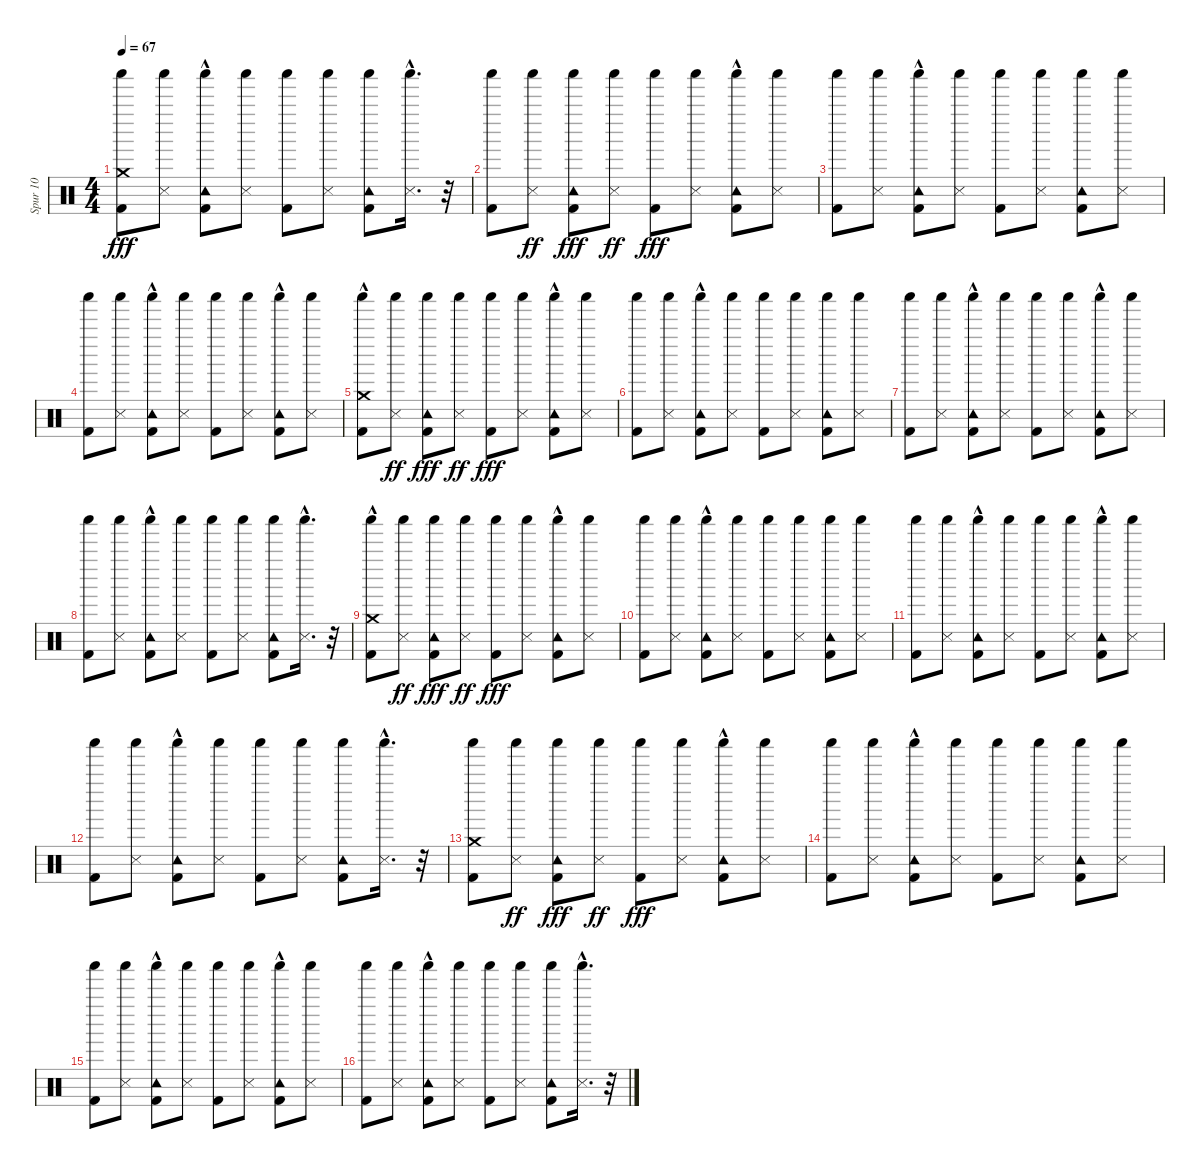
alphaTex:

\track ("Spur 10" "Spur 10") {instrument percussion}
\staff {score}
\articulation defaults
\ts (4 4)
\tempo 67
\clef neutral
\ks c
("Kick (hit) 2" "Crash medium (hit)" "Shaker (hit)").8{dy fff} ("Snare (side stick) 3" "Shaker (hit)").8 ("Kick (hit) 2" "Tambourine (hit)"{hac} "Shaker (hit)").8 ("Snare (side stick) 3" "Shaker (hit)").8 ("Kick (hit) 2" "Shaker (hit)").8 ("Snare (side stick) 3" "Shaker (hit)").8 ("Kick (hit) 2" "Tambourine (hit)" "Shaker (hit)").8 ("Snare (side stick) 3"{hac} "Shaker (hit)").16{d} r.32 |
("Kick (hit) 2" "Shaker (hit)").8 ("Snare (side stick) 3" "Shaker (hit)").8{dy ff} ("Kick (hit) 2" "Tambourine (hit)" "Shaker (hit)").8{dy fff} ("Snare (side stick) 3" "Shaker (hit)").8{dy ff} ("Kick (hit) 2" "Shaker (hit)").8{dy fff} ("Snare (side stick) 3" "Shaker (hit)").8 ("Kick (hit) 2" "Tambourine (hit)"{hac} "Shaker (hit)").8 ("Snare (side stick) 3" "Shaker (hit)").8 |
("Kick (hit) 2" "Shaker (hit)").8 ("Snare (side stick) 3" "Shaker (hit)").8 ("Kick (hit) 2" "Tambourine (hit)"{hac} "Shaker (hit)").8 ("Snare (side stick) 3" "Shaker (hit)").8 ("Kick (hit) 2" "Shaker (hit)").8 ("Snare (side stick) 3" "Shaker (hit)").8 ("Kick (hit) 2" "Tambourine (hit)" "Shaker (hit)").8 ("Snare (side stick) 3" "Shaker (hit)").8 |
("Kick (hit) 2" "Shaker (hit)").8 ("Snare (side stick) 3" "Shaker (hit)").8 ("Kick (hit) 2" "Tambourine (hit)"{hac} "Shaker (hit)").8 ("Snare (side stick) 3" "Shaker (hit)").8 ("Kick (hit) 2" "Shaker (hit)").8 ("Snare (side stick) 3" "Shaker (hit)").8 ("Kick (hit) 2" "Tambourine (hit)"{hac} "Shaker (hit)").8 ("Snare (side stick) 3" "Shaker (hit)").8 |
("Kick (hit) 2" "Crash medium (hit)"{hac} "Shaker (hit)").8 ("Snare (side stick) 3" "Shaker (hit)").8{dy ff} ("Kick (hit) 2" "Tambourine (hit)" "Shaker (hit)").8{dy fff} ("Snare (side stick) 3" "Shaker (hit)").8{dy ff} ("Kick (hit) 2" "Shaker (hit)").8{dy fff} ("Snare (side stick) 3" "Shaker (hit)").8 ("Kick (hit) 2" "Tambourine (hit)"{hac} "Shaker (hit)").8 ("Snare (side stick) 3" "Shaker (hit)").8 |
("Kick (hit) 2" "Shaker (hit)").8 ("Snare (side stick) 3" "Shaker (hit)").8 ("Kick (hit) 2" "Tambourine (hit)"{hac} "Shaker (hit)").8 ("Snare (side stick) 3" "Shaker (hit)").8 ("Kick (hit) 2" "Shaker (hit)").8 ("Snare (side stick) 3" "Shaker (hit)").8 ("Kick (hit) 2" "Tambourine (hit)" "Shaker (hit)").8 ("Snare (side stick) 3" "Shaker (hit)").8 |
("Kick (hit) 2" "Shaker (hit)").8 ("Snare (side stick) 3" "Shaker (hit)").8 ("Kick (hit) 2" "Tambourine (hit)"{hac} "Shaker (hit)").8 ("Snare (side stick) 3" "Shaker (hit)").8 ("Kick (hit) 2" "Shaker (hit)").8 ("Snare (side stick) 3" "Shaker (hit)").8 ("Kick (hit) 2" "Tambourine (hit)"{hac} "Shaker (hit)").8 ("Snare (side stick) 3" "Shaker (hit)").8 |
("Kick (hit) 2" "Shaker (hit)").8 ("Snare (side stick) 3" "Shaker (hit)").8 ("Kick (hit) 2" "Tambourine (hit)"{hac} "Shaker (hit)").8 ("Snare (side stick) 3" "Shaker (hit)").8 ("Kick (hit) 2" "Shaker (hit)").8 ("Snare (side stick) 3" "Shaker (hit)").8 ("Kick (hit) 2" "Tambourine (hit)" "Shaker (hit)").8 ("Snare (side stick) 3"{hac} "Shaker (hit)").16{d} r.32 |
("Kick (hit) 2" "Crash medium (hit)"{hac} "Shaker (hit)").8 ("Snare (side stick) 3" "Shaker (hit)").8{dy ff} ("Kick (hit) 2" "Tambourine (hit)" "Shaker (hit)").8{dy fff} ("Snare (side stick) 3" "Shaker (hit)").8{dy ff} ("Kick (hit) 2" "Shaker (hit)").8{dy fff} ("Snare (side stick) 3" "Shaker (hit)").8 ("Kick (hit) 2" "Tambourine (hit)"{hac} "Shaker (hit)").8 ("Snare (side stick) 3" "Shaker (hit)").8 |
("Kick (hit) 2" "Shaker (hit)").8 ("Snare (side stick) 3" "Shaker (hit)").8 ("Kick (hit) 2" "Tambourine (hit)"{hac} "Shaker (hit)").8 ("Snare (side stick) 3" "Shaker (hit)").8 ("Kick (hit) 2" "Shaker (hit)").8 ("Snare (side stick) 3" "Shaker (hit)").8 ("Kick (hit) 2" "Tambourine (hit)" "Shaker (hit)").8 ("Snare (side stick) 3" "Shaker (hit)").8 |
("Kick (hit) 2" "Shaker (hit)").8 ("Snare (side stick) 3" "Shaker (hit)").8 ("Kick (hit) 2" "Tambourine (hit)"{hac} "Shaker (hit)").8 ("Snare (side stick) 3" "Shaker (hit)").8 ("Kick (hit) 2" "Shaker (hit)").8 ("Snare (side stick) 3" "Shaker (hit)").8 ("Kick (hit) 2" "Tambourine (hit)"{hac} "Shaker (hit)").8 ("Snare (side stick) 3" "Shaker (hit)").8 |
("Kick (hit) 2" "Shaker (hit)").8 ("Snare (side stick) 3" "Shaker (hit)").8 ("Kick (hit) 2" "Tambourine (hit)"{hac} "Shaker (hit)").8 ("Snare (side stick) 3" "Shaker (hit)").8 ("Kick (hit) 2" "Shaker (hit)").8 ("Snare (side stick) 3" "Shaker (hit)").8 ("Kick (hit) 2" "Tambourine (hit)" "Shaker (hit)").8 ("Snare (side stick) 3"{hac} "Shaker (hit)").16{d} r.32 |
("Kick (hit) 2" "Crash medium (hit)" "Shaker (hit)").8 ("Snare (side stick) 3" "Shaker (hit)").8{dy ff} ("Kick (hit) 2" "Tambourine (hit)" "Shaker (hit)").8{dy fff} ("Snare (side stick) 3" "Shaker (hit)").8{dy ff} ("Kick (hit) 2" "Shaker (hit)").8{dy fff} ("Snare (side stick) 3" "Shaker (hit)").8 ("Kick (hit) 2" "Tambourine (hit)"{hac} "Shaker (hit)").8 ("Snare (side stick) 3" "Shaker (hit)").8 |
("Kick (hit) 2" "Shaker (hit)").8 ("Snare (side stick) 3" "Shaker (hit)").8 ("Kick (hit) 2" "Tambourine (hit)"{hac} "Shaker (hit)").8 ("Snare (side stick) 3" "Shaker (hit)").8 ("Kick (hit) 2" "Shaker (hit)").8 ("Snare (side stick) 3" "Shaker (hit)").8 ("Kick (hit) 2" "Tambourine (hit)" "Shaker (hit)").8 ("Snare (side stick) 3" "Shaker (hit)").8 |
("Kick (hit) 2" "Shaker (hit)").8 ("Snare (side stick) 3" "Shaker (hit)").8 ("Kick (hit) 2" "Tambourine (hit)"{hac} "Shaker (hit)").8 ("Snare (side stick) 3" "Shaker (hit)").8 ("Kick (hit) 2" "Shaker (hit)").8 ("Snare (side stick) 3" "Shaker (hit)").8 ("Kick (hit) 2" "Tambourine (hit)"{hac} "Shaker (hit)").8 ("Snare (side stick) 3" "Shaker (hit)").8 |
("Kick (hit) 2" "Shaker (hit)").8 ("Snare (side stick) 3" "Shaker (hit)").8 ("Kick (hit) 2" "Tambourine (hit)"{hac} "Shaker (hit)").8 ("Snare (side stick) 3" "Shaker (hit)").8 ("Kick (hit) 2" "Shaker (hit)").8 ("Snare (side stick) 3" "Shaker (hit)").8 ("Kick (hit) 2" "Tambourine (hit)" "Shaker (hit)").8 ("Snare (side stick) 3"{hac} "Shaker (hit)").16{d} r.32
